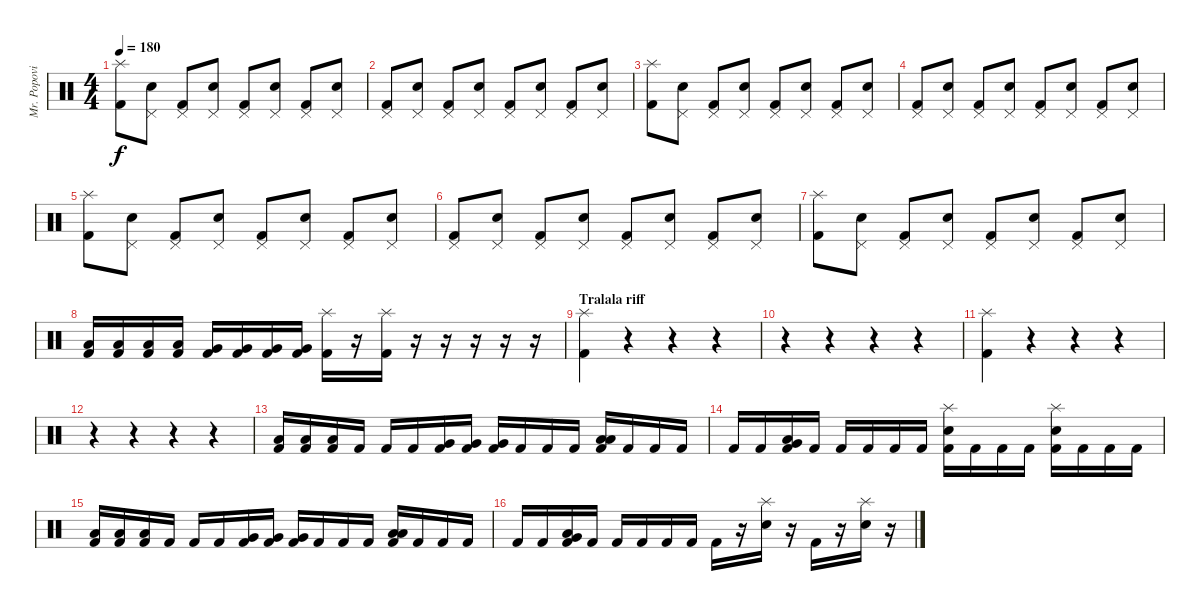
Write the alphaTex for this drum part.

\track ("Mr. Popovic" "Mr. Popovi") {instrument percussion}
\staff {score}
\articulation defaults
\ts (4 4)
\tempo 180
\clef neutral
\ks c
("Splash (hit)" "Kick (hit) 2").8{dy f} ("Pedal Hi-Hat (hit)" "Electric Snare (hit)").8 ("Pedal Hi-Hat (hit)" "Kick (hit) 2").8 ("Pedal Hi-Hat (hit)" "Electric Snare (hit)").8 ("Pedal Hi-Hat (hit)" "Kick (hit) 2").8 ("Pedal Hi-Hat (hit)" "Electric Snare (hit)").8 ("Pedal Hi-Hat (hit)" "Kick (hit) 2").8 ("Pedal Hi-Hat (hit)" "Electric Snare (hit)").8 |
("Pedal Hi-Hat (hit)" "Kick (hit) 2").8 ("Pedal Hi-Hat (hit)" "Electric Snare (hit)").8 ("Pedal Hi-Hat (hit)" "Kick (hit) 2").8 ("Pedal Hi-Hat (hit)" "Electric Snare (hit)").8 ("Pedal Hi-Hat (hit)" "Kick (hit) 2").8 ("Pedal Hi-Hat (hit)" "Electric Snare (hit)").8 ("Pedal Hi-Hat (hit)" "Kick (hit) 2").8 ("Pedal Hi-Hat (hit)" "Electric Snare (hit)").8 |
("Splash (hit)" "Kick (hit) 2").8 ("Pedal Hi-Hat (hit)" "Electric Snare (hit)").8 ("Pedal Hi-Hat (hit)" "Kick (hit) 2").8 ("Pedal Hi-Hat (hit)" "Electric Snare (hit)").8 ("Pedal Hi-Hat (hit)" "Kick (hit) 2").8 ("Pedal Hi-Hat (hit)" "Electric Snare (hit)").8 ("Pedal Hi-Hat (hit)" "Kick (hit) 2").8 ("Pedal Hi-Hat (hit)" "Electric Snare (hit)").8 |
("Pedal Hi-Hat (hit)" "Kick (hit) 2").8 ("Pedal Hi-Hat (hit)" "Electric Snare (hit)").8 ("Pedal Hi-Hat (hit)" "Kick (hit) 2").8 ("Pedal Hi-Hat (hit)" "Electric Snare (hit)").8 ("Pedal Hi-Hat (hit)" "Kick (hit) 2").8 ("Pedal Hi-Hat (hit)" "Electric Snare (hit)").8 ("Pedal Hi-Hat (hit)" "Kick (hit) 2").8 ("Pedal Hi-Hat (hit)" "Electric Snare (hit)").8 |
("Splash (hit)" "Kick (hit) 2").8 ("Pedal Hi-Hat (hit)" "Electric Snare (hit)").8 ("Pedal Hi-Hat (hit)" "Kick (hit) 2").8 ("Pedal Hi-Hat (hit)" "Electric Snare (hit)").8 ("Pedal Hi-Hat (hit)" "Kick (hit) 2").8 ("Pedal Hi-Hat (hit)" "Electric Snare (hit)").8 ("Pedal Hi-Hat (hit)" "Kick (hit) 2").8 ("Pedal Hi-Hat (hit)" "Electric Snare (hit)").8 |
("Pedal Hi-Hat (hit)" "Kick (hit) 2").8 ("Pedal Hi-Hat (hit)" "Electric Snare (hit)").8 ("Pedal Hi-Hat (hit)" "Kick (hit) 2").8 ("Pedal Hi-Hat (hit)" "Electric Snare (hit)").8 ("Pedal Hi-Hat (hit)" "Kick (hit) 2").8 ("Pedal Hi-Hat (hit)" "Electric Snare (hit)").8 ("Pedal Hi-Hat (hit)" "Kick (hit) 2").8 ("Pedal Hi-Hat (hit)" "Electric Snare (hit)").8 |
("Splash (hit)" "Kick (hit) 2").8 ("Pedal Hi-Hat (hit)" "Electric Snare (hit)").8 ("Pedal Hi-Hat (hit)" "Kick (hit) 2").8 ("Pedal Hi-Hat (hit)" "Electric Snare (hit)").8 ("Pedal Hi-Hat (hit)" "Kick (hit) 2").8 ("Pedal Hi-Hat (hit)" "Electric Snare (hit)").8 ("Pedal Hi-Hat (hit)" "Kick (hit) 2").8 ("Pedal Hi-Hat (hit)" "Electric Snare (hit)").8 |
("Low Tom (hit)" "Kick (hit) 2").16 ("Low Tom (hit)" "Kick (hit) 2").16 ("Low Tom (hit)" "Kick (hit) 2").16 ("Low Tom (hit)" "Kick (hit) 2").16 ("Very Low Tom (hit)" "Kick (hit) 2").16 ("Very Low Tom (hit)" "Kick (hit) 2").16 ("Very Low Tom (hit)" "Kick (hit) 2").16 ("Very Low Tom (hit)" "Kick (hit) 2").16 ("Splash (hit)" "Kick (hit) 2").16 r.16 ("Splash (hit)" "Kick (hit) 2").16 r.16 r.16 r.16 r.16 r.16 |
\section ("" "Tralala riff")
("Splash (hit)" "Kick (hit) 2").4 r.4 r.4 r.4 |
r.4 r.4 r.4 r.4 |
("Splash (hit)" "Kick (hit) 2").4 r.4 r.4 r.4 |
r.4 r.4 r.4 r.4 |
("Low Tom (hit)" "Kick (hit) 2").16 ("Low Tom (hit)" "Kick (hit) 2").16 ("Low Tom (hit)" "Kick (hit) 2").16 "Kick (hit) 2".16 "Kick (hit) 2".16 "Kick (hit) 2".16 ("Very Low Tom (hit)" "Kick (hit) 2").16 ("Very Low Tom (hit)" "Kick (hit) 2").16 ("Very Low Tom (hit)" "Kick (hit) 2").16 "Kick (hit) 2".16 "Kick (hit) 2".16 "Kick (hit) 2".16 ("Low Tom (hit)" "Low Floor Tom (hit)" "Kick (hit) 2").16 "Kick (hit) 2".16 "Kick (hit) 2".16 "Kick (hit) 2".16 |
"Kick (hit) 2".16 "Kick (hit) 2".16 ("Very Low Tom (hit)" "Low Floor Tom (hit)" "Kick (hit) 2").16 "Kick (hit) 2".16 "Kick (hit) 2".16 "Kick (hit) 2".16 "Kick (hit) 2".16 "Kick (hit) 2".16 ("Splash (hit)" "Electric Snare (hit)" "Kick (hit) 2").16 "Kick (hit) 2".16 "Kick (hit) 2".16 "Kick (hit) 2".16 ("Splash (hit)" "Electric Snare (hit)" "Kick (hit) 2").16 "Kick (hit) 2".16 "Kick (hit) 2".16 "Kick (hit) 2".16 |
("Low Tom (hit)" "Kick (hit) 2").16 ("Low Tom (hit)" "Kick (hit) 2").16 ("Low Tom (hit)" "Kick (hit) 2").16 "Kick (hit) 2".16 "Kick (hit) 2".16 "Kick (hit) 2".16 ("Very Low Tom (hit)" "Kick (hit) 2").16 ("Very Low Tom (hit)" "Kick (hit) 2").16 ("Very Low Tom (hit)" "Kick (hit) 2").16 "Kick (hit) 2".16 "Kick (hit) 2".16 "Kick (hit) 2".16 ("Low Tom (hit)" "Low Floor Tom (hit)" "Kick (hit) 2").16 "Kick (hit) 2".16 "Kick (hit) 2".16 "Kick (hit) 2".16 |
"Kick (hit) 2".16 "Kick (hit) 2".16 ("Very Low Tom (hit)" "Low Floor Tom (hit)" "Kick (hit) 2").16 "Kick (hit) 2".16 "Kick (hit) 2".16 "Kick (hit) 2".16 "Kick (hit) 2".16 "Kick (hit) 2".16 "Kick (hit) 2".16 r.16 ("Splash (hit)" "Electric Snare (hit)").16 r.16 "Kick (hit) 2".16 r.16 ("Splash (hit)" "Electric Snare (hit)").16 r.16
